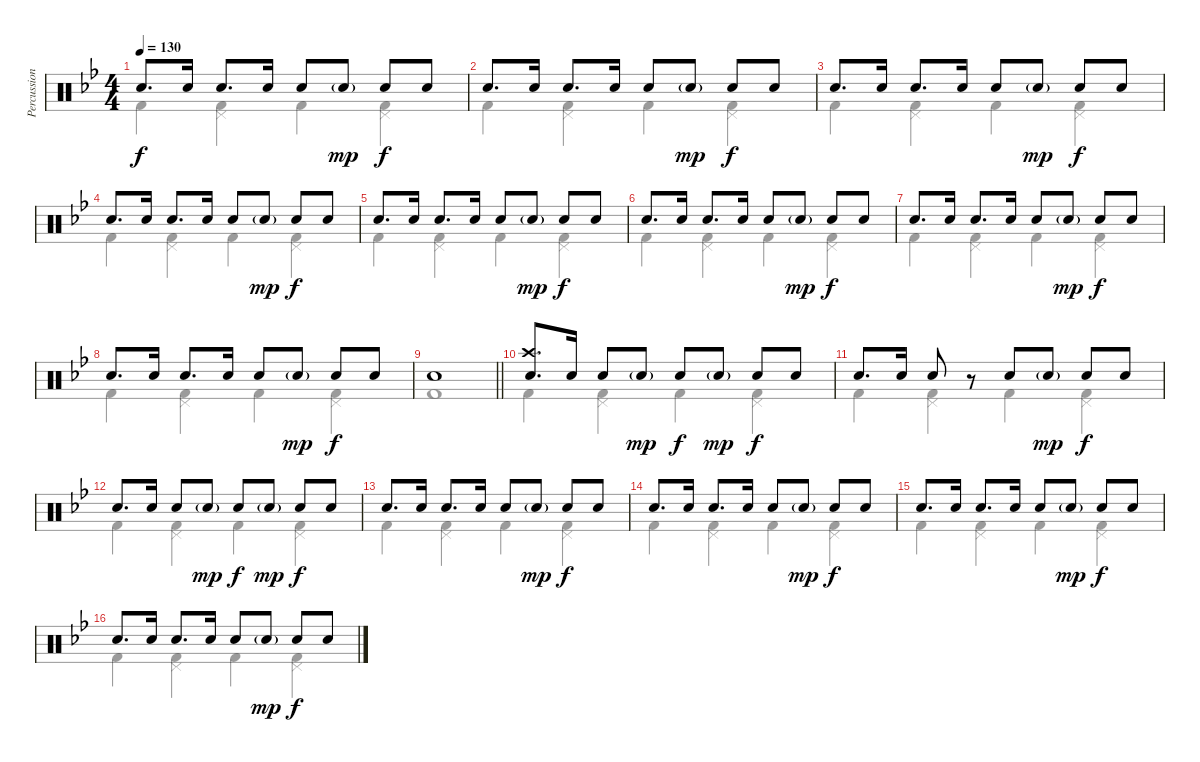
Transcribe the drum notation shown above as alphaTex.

\track ("Percussion" "Percussion") {instrument percussion}
\staff {score}
\articulation defaults
\voice
\ts (4 4)
\tempo 130
\clef neutral
\ks gminor "Snare (hit) 2".8{d dy f} "Snare (hit) 2".16 "Snare (hit) 2".8{d} "Snare (hit) 2".16 "Snare (hit) 2".8 "Snare (hit) 2"{g}.8{dy mp} "Snare (hit) 2".8{dy f} "Snare (hit) 2".8
|
"Snare (hit) 2".8{d} "Snare (hit) 2".16 "Snare (hit) 2".8{d} "Snare (hit) 2".16 "Snare (hit) 2".8 "Snare (hit) 2"{g}.8{dy mp} "Snare (hit) 2".8{dy f} "Snare (hit) 2".8 |
"Snare (hit) 2".8{d} "Snare (hit) 2".16 "Snare (hit) 2".8{d} "Snare (hit) 2".16 "Snare (hit) 2".8 "Snare (hit) 2"{g}.8{dy mp} "Snare (hit) 2".8{dy f} "Snare (hit) 2".8 |
"Snare (hit) 2".8{d} "Snare (hit) 2".16 "Snare (hit) 2".8{d} "Snare (hit) 2".16 "Snare (hit) 2".8 "Snare (hit) 2"{g}.8{dy mp} "Snare (hit) 2".8{dy f} "Snare (hit) 2".8 |
"Snare (hit) 2".8{d} "Snare (hit) 2".16 "Snare (hit) 2".8{d} "Snare (hit) 2".16 "Snare (hit) 2".8 "Snare (hit) 2"{g}.8{dy mp} "Snare (hit) 2".8{dy f} "Snare (hit) 2".8 |
"Snare (hit) 2".8{d} "Snare (hit) 2".16 "Snare (hit) 2".8{d} "Snare (hit) 2".16 "Snare (hit) 2".8 "Snare (hit) 2"{g}.8{dy mp} "Snare (hit) 2".8{dy f} "Snare (hit) 2".8 |
"Snare (hit) 2".8{d} "Snare (hit) 2".16 "Snare (hit) 2".8{d} "Snare (hit) 2".16 "Snare (hit) 2".8 "Snare (hit) 2"{g}.8{dy mp} "Snare (hit) 2".8{dy f} "Snare (hit) 2".8 |
"Snare (hit) 2".8{d} "Snare (hit) 2".16 "Snare (hit) 2".8{d} "Snare (hit) 2".16 "Snare (hit) 2".8 "Snare (hit) 2"{g}.8{dy mp} "Snare (hit) 2".8{dy f} "Snare (hit) 2".8 |
\barLineRight lightlight "Snare (hit) 2".1
|
("Crash high (hit)" "Snare (hit) 2").8{d} "Snare (hit) 2".16 "Snare (hit) 2".8 "Snare (hit) 2"{g}.8{dy mp} "Snare (hit) 2".8{dy f} "Snare (hit) 2"{g}.8{dy mp} "Snare (hit) 2".8{dy f} "Snare (hit) 2".8 |
"Snare (hit) 2".8{d} "Snare (hit) 2".16 "Snare (hit) 2".8 r.8 "Snare (hit) 2".8 "Snare (hit) 2"{g}.8{dy mp} "Snare (hit) 2".8{dy f} "Snare (hit) 2".8 |
"Snare (hit) 2".8{d} "Snare (hit) 2".16 "Snare (hit) 2".8 "Snare (hit) 2"{g}.8{dy mp} "Snare (hit) 2".8{dy f} "Snare (hit) 2"{g}.8{dy mp} "Snare (hit) 2".8{dy f} "Snare (hit) 2".8 |
"Snare (hit) 2".8{d} "Snare (hit) 2".16 "Snare (hit) 2".8{d} "Snare (hit) 2".16 "Snare (hit) 2".8 "Snare (hit) 2"{g}.8{dy mp} "Snare (hit) 2".8{dy f} "Snare (hit) 2".8 |
"Snare (hit) 2".8{d} "Snare (hit) 2".16 "Snare (hit) 2".8{d} "Snare (hit) 2".16 "Snare (hit) 2".8 "Snare (hit) 2"{g}.8{dy mp} "Snare (hit) 2".8{dy f} "Snare (hit) 2".8 |
"Snare (hit) 2".8{d} "Snare (hit) 2".16 "Snare (hit) 2".8{d} "Snare (hit) 2".16 "Snare (hit) 2".8 "Snare (hit) 2"{g}.8{dy mp} "Snare (hit) 2".8{dy f} "Snare (hit) 2".8 |
"Snare (hit) 2".8{d} "Snare (hit) 2".16 "Snare (hit) 2".8{d} "Snare (hit) 2".16 "Snare (hit) 2".8 "Snare (hit) 2"{g}.8{dy mp} "Snare (hit) 2".8{dy f} "Snare (hit) 2".8
\voice
\clef neutral
\ottava regular
\simile none
\ks gminor "Kick (hit) 2".4{dy f}
("Kick (hit) 2" "Pedal Hi-Hat (hit)").4 "Kick (hit) 2".4 ("Kick (hit) 2" "Pedal Hi-Hat (hit)").4 |
"Kick (hit) 2".4 ("Kick (hit) 2" "Pedal Hi-Hat (hit)").4 "Kick (hit) 2".4 ("Kick (hit) 2" "Pedal Hi-Hat (hit)").4 |
"Kick (hit) 2".4 ("Kick (hit) 2" "Pedal Hi-Hat (hit)").4 "Kick (hit) 2".4 ("Kick (hit) 2" "Pedal Hi-Hat (hit)").4 |
"Kick (hit) 2".4 ("Kick (hit) 2" "Pedal Hi-Hat (hit)").4 "Kick (hit) 2".4 ("Kick (hit) 2" "Pedal Hi-Hat (hit)").4 |
"Kick (hit) 2".4 ("Kick (hit) 2" "Pedal Hi-Hat (hit)").4 "Kick (hit) 2".4 ("Kick (hit) 2" "Pedal Hi-Hat (hit)").4 |
"Kick (hit) 2".4 ("Kick (hit) 2" "Pedal Hi-Hat (hit)").4 "Kick (hit) 2".4 ("Kick (hit) 2" "Pedal Hi-Hat (hit)").4 |
"Kick (hit) 2".4 ("Kick (hit) 2" "Pedal Hi-Hat (hit)").4 "Kick (hit) 2".4 ("Kick (hit) 2" "Pedal Hi-Hat (hit)").4 |
"Kick (hit) 2".4 ("Kick (hit) 2" "Pedal Hi-Hat (hit)").4 "Kick (hit) 2".4 ("Kick (hit) 2" "Pedal Hi-Hat (hit)").4 |
\barLineRight lightlight "Kick (hit) 2".1
|
"Kick (hit) 2".4 ("Kick (hit) 2" "Pedal Hi-Hat (hit)").4 "Kick (hit) 2".4 ("Kick (hit) 2" "Pedal Hi-Hat (hit)").4 |
"Kick (hit) 2".4 ("Kick (hit) 2" "Pedal Hi-Hat (hit)").4 "Kick (hit) 2".4 ("Kick (hit) 2" "Pedal Hi-Hat (hit)").4 |
"Kick (hit) 2".4 ("Kick (hit) 2" "Pedal Hi-Hat (hit)").4 "Kick (hit) 2".4 ("Kick (hit) 2" "Pedal Hi-Hat (hit)").4 |
"Kick (hit) 2".4 ("Kick (hit) 2" "Pedal Hi-Hat (hit)").4 "Kick (hit) 2".4 ("Kick (hit) 2" "Pedal Hi-Hat (hit)").4 |
"Kick (hit) 2".4 ("Kick (hit) 2" "Pedal Hi-Hat (hit)").4 "Kick (hit) 2".4 ("Kick (hit) 2" "Pedal Hi-Hat (hit)").4 |
"Kick (hit) 2".4 ("Kick (hit) 2" "Pedal Hi-Hat (hit)").4 "Kick (hit) 2".4 ("Kick (hit) 2" "Pedal Hi-Hat (hit)").4 |
"Kick (hit) 2".4 ("Kick (hit) 2" "Pedal Hi-Hat (hit)").4 "Kick (hit) 2".4 ("Kick (hit) 2" "Pedal Hi-Hat (hit)").4
